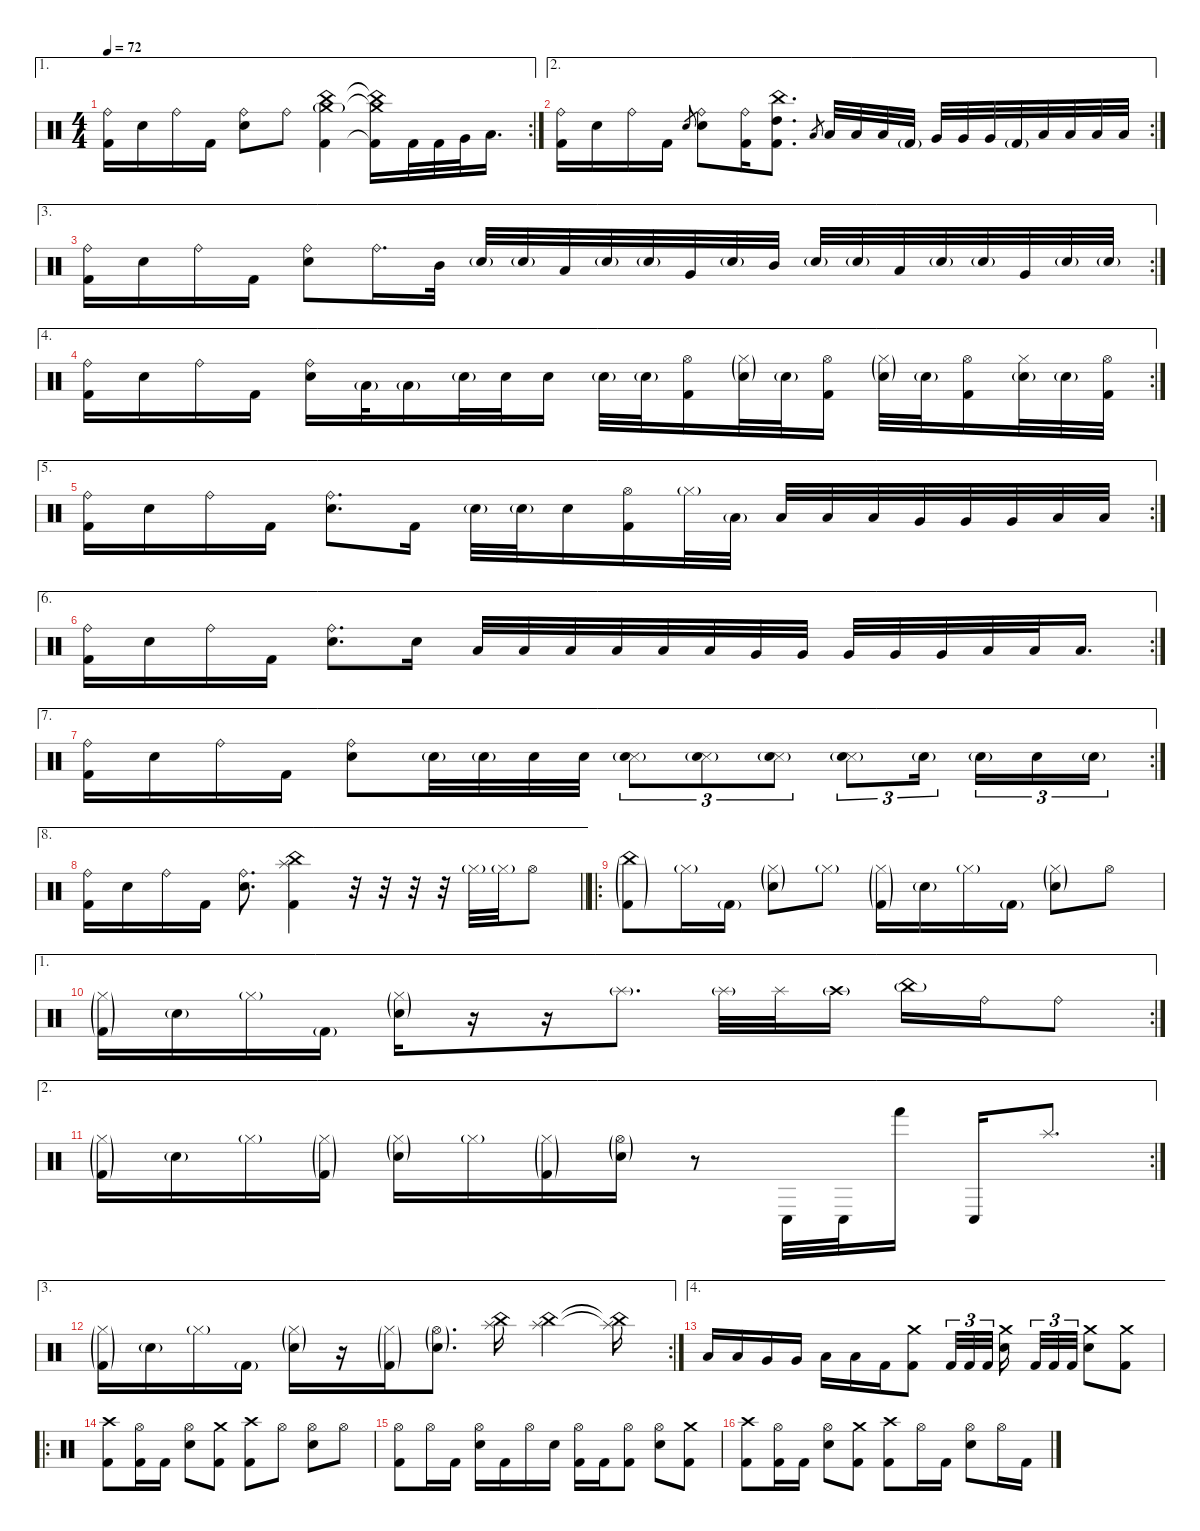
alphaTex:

\defaultSystemsLayout 4
\hideDynamics
\bracketExtendMode nobrackets
\singleTrackTrackNamePolicy hidden
\multiTrackTrackNamePolicy hidden
\firstSystemTrackNameMode fullname
\firstSystemTrackNameOrientation horizontal
\otherSystemsTrackNameOrientation horizontal
\track ("Drums" "drm.") {instrument percussion}
\staff {score}
\articulation defaults
\ae 1
\rc 2
\ts (4 4)
\tempo 72
\clef neutral
\ks c
("Ride (bell)" "Kick (hit) 2").16{dy f beam Down} "Snare (hit) 2".16{beam Down} "Ride (bell)".16{beam Down} "Kick (hit) 2".16{beam Down} ("Ride (bell)" "Snare (hit) 2").8{beam Down} "Ride (bell)".8{beam Down} ("China (hit)" "Crash medium (hit)"{g} "Kick (hit) 2").4{beam Down} ("China (hit)"{t} "Crash medium (hit)"{t} "Kick (hit) 2"{t}).16{beam Down} "Kick (hit) 2".32{dy mf beam Down} "Kick (hit) 2".32{beam Down} "Very Low Tom (hit)".32{beam Down} "Low Floor Tom (hit)".16{d dy f beam Down} |
\ae 2
\rc 2
("Ride (bell)" "Kick (hit) 2").16{beam Down} "Snare (hit) 2".16{beam Down} "Ride (bell)".16{beam Down} "Kick (hit) 2".16{beam Down} "Electric Snare (hit)".8{gr dy mf beam Up} ("Ride (bell)" "Snare (hit) 2").8{dy f beam Down} ("Ride (bell)" "Kick (hit) 2").16{beam Down} ("China (hit)" "High Tom (hit)" "Kick (hit) 2").8{d beam Down} "Low Tom (hit)".8{gr dy mf beam Up} "Low Tom (hit)".32{dy f beam Up} "Low Tom (hit)".32{beam Up} "Low Tom (hit)".32{beam Up} "Kick (hit) 2"{g}.32{dy mf beam Up} "Very Low Tom (hit)".32{dy f beam Up} "Very Low Tom (hit)".32{beam Up} "Very Low Tom (hit)".32{beam Up} "Kick (hit) 2"{g}.32{dy mf beam Up} "Low Floor Tom (hit)".32{dy f beam Up} "Low Floor Tom (hit)".32{beam Up} "Low Floor Tom (hit)".32{beam Up} "Low Floor Tom (hit)".32{beam Up} |
\ae 3
\rc 2
("Ride (bell)" "Kick (hit) 2").16{beam Down} "Snare (hit) 2".16{beam Down} "Ride (bell)".16{beam Down} "Kick (hit) 2".16{beam Down} ("Ride (bell)" "Snare (hit) 2").8{beam Down} "Ride (bell)".16{d beam Down} "Mid Tom (hit)".32{beam Down} "Snare (hit) 2"{g}.32{dy mf beam Up} "Snare (hit) 2"{g}.32{beam Up} "Low Tom (hit)".32{dy f beam Up} "Snare (hit) 2"{g}.32{dy mf beam Up} "Snare (hit) 2"{g}.32{beam Up} "Very Low Tom (hit)".32{dy f beam Up} "Snare (hit) 2"{g}.32{dy mf beam Up} "Mid Tom (hit)".32{dy f beam Up} "Snare (hit) 2"{g}.32{dy mf beam Up} "Snare (hit) 2"{g}.32{beam Up} "Low Tom (hit)".32{dy f beam Up} "Snare (hit) 2"{g}.32{dy mf beam Up} "Snare (hit) 2"{g}.32{beam Up} "Very Low Tom (hit)".32{dy f beam Up} "Snare (hit) 2"{g}.32{dy mf beam Up} "Snare (hit) 2"{g}.32{beam Up} |
\ae 4
\rc 2
("Ride (bell)" "Kick (hit) 2").16{dy f beam Down} "Snare (hit) 2".16{beam Down} "Ride (bell)".16{beam Down} "Kick (hit) 2".16{beam Down} ("Ride (bell)" "Snare (hit) 2").16{beam Down} "Low Tom (hit)"{g}.32{dy mf beam Down} "Low Tom (hit)"{g}.16{beam Down} "Snare (hit) 2"{g}.32{beam Down} "Snare (hit) 2".32{dy f beam Down} "Snare (hit) 2".16{beam Down} "Snare (hit) 2"{g}.32{dy mf beam Down} "Snare (hit) 2"{g}.32{beam Down} ("Hi-Hat (open)" "Kick (hit) 2").16{dy f beam Down} ("Hi-Hat (closed)"{g} "Snare (hit) 2"{g}).32{dy mf beam Down} "Snare (hit) 2"{g}.32{beam Down} ("Hi-Hat (open)" "Kick (hit) 2").16{dy f beam Down} ("Hi-Hat (closed)"{g} "Snare (hit) 2"{g}).32{dy mf beam Down} "Snare (hit) 2"{g}.32{beam Down} ("Hi-Hat (open)" "Kick (hit) 2").16{dy f beam Down} ("Hi-Hat (closed)" "Snare (hit) 2"{g}).32{beam Down} "Snare (hit) 2"{g}.32{dy mf beam Down} ("Hi-Hat (open)" "Kick (hit) 2").32{dy f beam Down} |
\ae 5
\rc 2
("Ride (bell)" "Kick (hit) 2").16{beam Down} "Snare (hit) 2".16{beam Down} "Ride (bell)".16{beam Down} "Kick (hit) 2".16{beam Down} ("Ride (bell)" "Snare (hit) 2").8{d beam Down} "Kick (hit) 2".16{beam Down} "Snare (hit) 2"{g}.32{dy mf beam Down} "Snare (hit) 2"{g}.32{beam Down} "Snare (hit) 2".16{dy f beam Down} ("Hi-Hat (open)" "Kick (hit) 2").16{beam Down} "Hi-Hat (closed)"{g}.32{dy mf beam Down} "Low Tom (hit)"{g}.32{beam Down} "Low Tom (hit)".32{dy f beam Up} "Low Tom (hit)".32{beam Up} "Low Tom (hit)".32{beam Up} "Very Low Tom (hit)".32{beam Up} "Very Low Tom (hit)".32{beam Up} "Very Low Tom (hit)".32{beam Up} "Low Floor Tom (hit)".32{beam Up} "Low Floor Tom (hit)".32{beam Up} |
\ae 6
\rc 2
("Ride (bell)" "Kick (hit) 2").16{beam Down} "Snare (hit) 2".16{beam Down} "Ride (bell)".16{beam Down} "Kick (hit) 2".16{beam Down} ("Ride (bell)" "Snare (hit) 2").8{d beam Down} "Snare (hit) 2".16{beam Down} "Low Tom (hit)".32{beam Up} "Low Tom (hit)".32{beam Up} "Low Tom (hit)".32{beam Up} "Low Tom (hit)".32{beam Up} "Low Tom (hit)".32{beam Up} "Low Tom (hit)".32{beam Up} "Very Low Tom (hit)".32{beam Up} "Very Low Tom (hit)".32{beam Up} "Very Low Tom (hit)".32{beam Up} "Very Low Tom (hit)".32{beam Up} "Very Low Tom (hit)".32{beam Up} "Low Floor Tom (hit)".32{beam Up} "Low Floor Tom (hit)".32{beam Up} "Low Floor Tom (hit)".16{d beam Up} |
\ae 7
\rc 2
("Ride (bell)" "Kick (hit) 2").16{beam Down} "Snare (hit) 2".16{beam Down} "Ride (bell)".16{beam Down} "Kick (hit) 2".16{beam Down} ("Ride (bell)" "Snare (hit) 2").8{beam Down} "Snare (hit) 2"{g}.32{dy mf beam Down} "Snare (hit) 2"{g}.32{beam Down} "Snare (hit) 2".32{dy f beam Down} "Snare (hit) 2".32{beam Down} ("Snare (side stick) 3" "Snare (hit) 2"{g}).8{tu (3 2) dy fff beam Down} ("Snare (side stick) 3" "Snare (hit) 2"{g}).8{tu (3 2) beam Down} ("Snare (side stick) 3" "Snare (hit) 2"{g}).8{tu (3 2) beam Down} ("Snare (side stick) 3" "Snare (hit) 2"{g}).8{tu (3 2) beam Down} "Snare (hit) 2"{g}.16{tu (3 2) dy ff beam Down} "Snare (hit) 2"{g}.16{tu (3 2) beam Down} "Snare (hit) 2".16{tu (3 2) dy fff beam Down} "Snare (hit) 2"{g}.16{tu (3 2) dy ff beam Down} |
\ae 8
\barLineRight lightlight
("Ride (bell)" "Kick (hit) 2").16{dy f beam Down} "Snare (hit) 2".16{beam Down} "Ride (bell)".16{beam Down} "Kick (hit) 2".16{beam Down} ("Ride (bell)" "Snare (hit) 2").8{d dy fff beam Down} ("China (hit)" "Splash (hit)" "Kick (hit) 2").4{beam Down} r.32{beam Down} r.32{beam Down} r.32{beam Down} r.32{beam Down} "Hi-Hat (closed)"{g}.32{dy ff beam Down} "Hi-Hat (closed)"{g}.32{beam Down} "Hi-Hat (open)".8{dy fff beam Down} |
\ro
("China (hit)"{g} "Kick (hit) 2"{g}).8{dy ff beam Down} "Hi-Hat (closed)"{g}.16{beam Down} "Kick (hit) 2"{g}.16{beam Down} ("Hi-Hat (closed)"{g} "Snare (hit) 2"{g}).8{beam Down} "Hi-Hat (closed)"{g}.8{beam Down} ("Hi-Hat (closed)"{g} "Kick (hit) 2"{g}).16{beam Down} "Snare (hit) 2"{g}.16{beam Down} "Hi-Hat (closed)"{g}.16{beam Down} "Kick (hit) 2"{g}.16{beam Down} ("Hi-Hat (closed)"{g} "Snare (hit) 2"{g}).8{beam Down} "Hi-Hat (open)".8{dy fff beam Down} |
\ae 1
\rc 2
("Hi-Hat (closed)"{g} "Kick (hit) 2"{g}).16{dy ff beam Down} "Snare (hit) 2"{g}.16{beam Down} "Hi-Hat (closed)"{g}.16{beam Down} "Kick (hit) 2"{g}.16{beam Down} ("Hi-Hat (closed)"{g} "Snare (hit) 2"{g}).16{beam Down} r.16{beam Down} r.16{beam Down} "Splash (hit)"{g}.8{d beam Down} "Splash (hit)"{g}.32{beam Down} "Splash (hit)".32{dy fff beam Down} "Crash high (hit)"{g}.16{dy ff beam Down} "China (hit)"{g}.16{beam Down} "Ride (bell)".16{dy fff beam Down} "Ride (bell)".8{beam Down} |
\ae 2
\rc 2
("Hi-Hat (closed)"{g} "Kick (hit) 2"{g}).16{dy ff beam Down} "Snare (hit) 2"{g}.16{beam Down} "Hi-Hat (closed)"{g}.16{beam Down} ("Hi-Hat (closed)"{g} "Kick (hit) 2"{g}).16{beam Down} ("Hi-Hat (closed)"{g} "Snare (hit) 2"{g}).16{beam Down} "Hi-Hat (closed)"{g}.16{beam Down} ("Hi-Hat (closed)"{g} "Kick (hit) 2"{g}).16{beam Down} ("Hi-Hat (open)"{g} "Snare (hit) 2"{g}).16{beam Down} r.8{beam Down} "Conga low (hit)".32{dy f beam Up} "Conga low (hit)".32{dy fff beam Up} "Hand (hit)".16{dy f beam Up} "Conga low (hit)".16{beam Up} "Splash (hit)".8{d dy fff beam Up} |
\ae 3
\rc 2
("Hi-Hat (closed)"{g} "Kick (hit) 2"{g}).16{dy ff beam Down} "Snare (hit) 2"{g}.16{beam Down} "Hi-Hat (closed)"{g}.16{beam Down} "Kick (hit) 2"{g}.16{beam Down} ("Hi-Hat (closed)"{g} "Snare (hit) 2"{g}).16{beam Down} r.16{beam Down} ("Hi-Hat (closed)"{g} "Kick (hit) 2"{g}).16{beam Down} ("Hi-Hat (open)"{g} "Snare (hit) 2"{g}).8{d beam Down} ("Splash (hit)" "China (hit)").16{dy f beam Down} ("Splash (hit)" "China (hit)").4{beam Down} ("Splash (hit)"{t} "China (hit)"{t}).16{beam Down} |
\ae 4 "Low Tom (hit)".16{beam Up} "Low Tom (hit)".16{beam Up} "Very Low Tom (hit)".16{beam Up} "Very Low Tom (hit)".16{beam Up} "Low Floor Tom (hit)".16{beam Down} "Low Floor Tom (hit)".16{beam Down} "Kick (hit) 2".16{beam Down}
("Crash medium (hit)" "Kick (hit) 2").8{beam Down} "Kick (hit) 2".32{tu (3 2) beam Up} "Kick (hit) 2".32{tu (3 2) beam Up} "Kick (hit) 2".32{tu (3 2) beam Up} ("Crash medium (hit)" "Snare (hit) 2").16{beam Down} "Kick (hit) 2".32{tu (3 2) beam Up} "Kick (hit) 2".32{tu (3 2) beam Up} "Kick (hit) 2".32{tu (3 2) beam Up} ("Crash medium (hit)" "Snare (hit) 2").8{beam Down} ("Crash medium (hit)" "Kick (hit) 2").8{beam Down} |
\ro
("Crash high (hit)" "Kick (hit) 2").8{beam Down} ("Hi-Hat (open)" "Kick (hit) 2").16{beam Down} "Kick (hit) 2".16{beam Down} ("Hi-Hat (open)" "Snare (hit) 2").8{beam Down} ("Crash medium (hit)" "Kick (hit) 2").8{beam Down} ("Crash high (hit)" "Kick (hit) 2").8{beam Down} "Hi-Hat (open)".8{beam Down} ("Hi-Hat (open)" "Snare (hit) 2").8{beam Down} "Hi-Hat (open)".8{beam Down} |
("Hi-Hat (open)" "Kick (hit) 2").8{beam Down} "Hi-Hat (open)".16{beam Down} "Kick (hit) 2".16{beam Down} ("Hi-Hat (open)" "Snare (hit) 2").16{beam Down} "Kick (hit) 2".16{beam Down} "Hi-Hat (open)".16{beam Down} "Snare (hit) 2".16{beam Down} ("Hi-Hat (open)" "Kick (hit) 2").16{beam Down} "Kick (hit) 2".16{beam Down} ("Hi-Hat (open)" "Kick (hit) 2").8{beam Down} ("Hi-Hat (open)" "Snare (hit) 2").8{beam Down} ("Crash medium (hit)" "Kick (hit) 2").8{beam Down} |
("Crash high (hit)" "Kick (hit) 2").8{beam Down} ("Hi-Hat (open)" "Kick (hit) 2").16{beam Down} "Kick (hit) 2".16{beam Down} ("Hi-Hat (open)" "Snare (hit) 2").8{beam Down} ("Crash medium (hit)" "Kick (hit) 2").8{beam Down} ("Crash high (hit)" "Kick (hit) 2").8{beam Down} "Hi-Hat (open)".16{beam Down} "Kick (hit) 2".16{beam Down} ("Hi-Hat (open)" "Snare (hit) 2").8{beam Down} "Hi-Hat (open)".16{beam Down} "Kick (hit) 2".16{beam Down}
